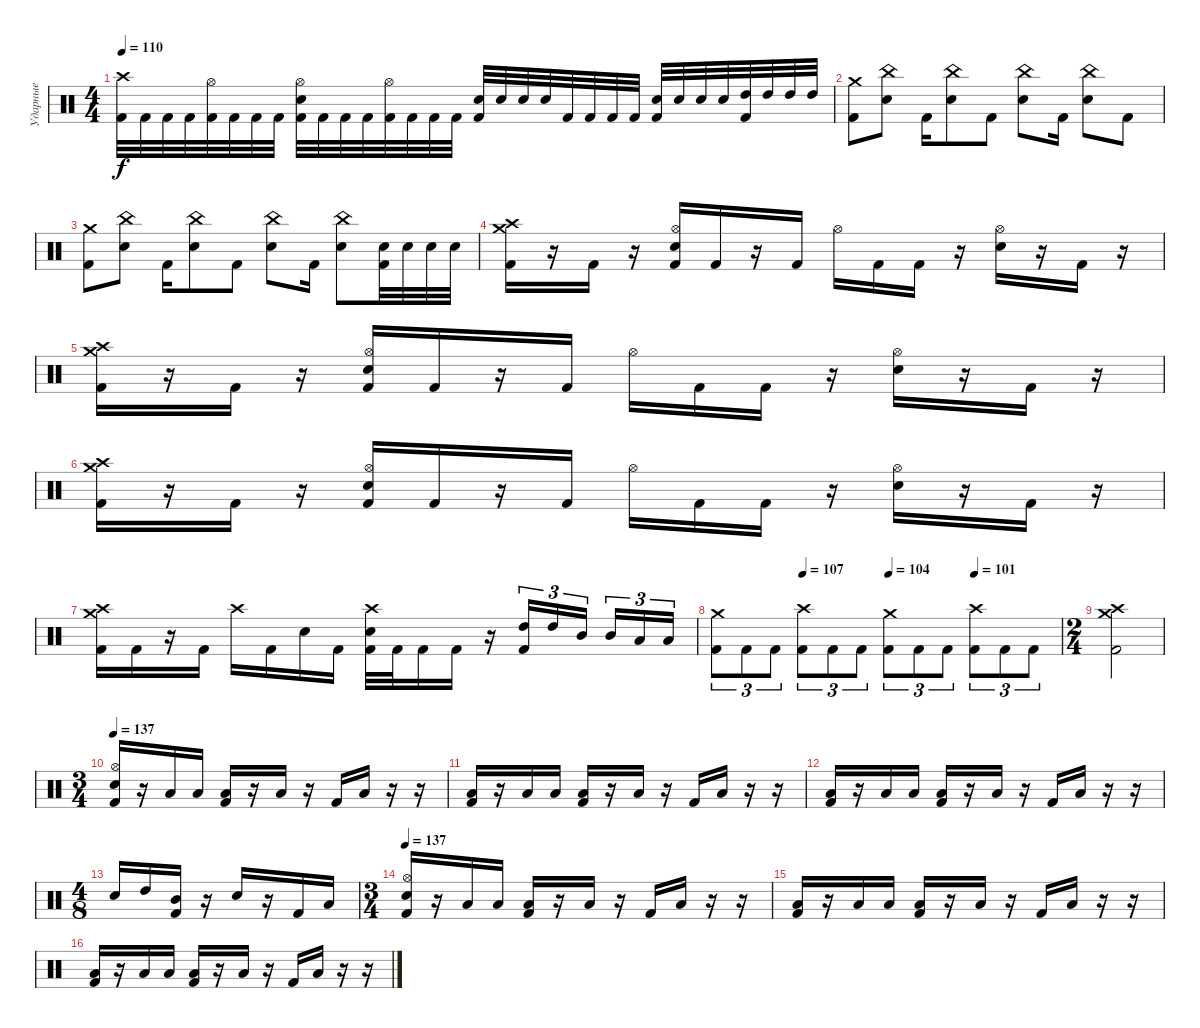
\track ("Ударные" "Ударные") {instrument percussion}
\staff {score}
\articulation defaults
\ts (4 4)
\tempo 110
\clef neutral
\ks c
("Crash high (hit)" "Kick (hit) 2").32{dy f} "Kick (hit) 2".32 "Kick (hit) 2".32 "Kick (hit) 2".32 ("Hi-Hat (open)" "Kick (hit) 2").32 "Kick (hit) 2".32 "Kick (hit) 2".32 "Kick (hit) 2".32 ("Hi-Hat (open)" "Electric Snare (hit)" "Kick (hit) 2").32 "Kick (hit) 2".32 "Kick (hit) 2".32 "Kick (hit) 2".32 ("Hi-Hat (open)" "Kick (hit) 2").32 "Kick (hit) 2".32 "Kick (hit) 2".32 "Kick (hit) 2".32 ("Electric Snare (hit)" "Kick (hit) 2").32 "Electric Snare (hit)".32 "Electric Snare (hit)".32 "Electric Snare (hit)".32 "Kick (hit) 2".32 "Kick (hit) 2".32 "Kick (hit) 2".32 "Kick (hit) 2".32 ("Electric Snare (hit)" "Kick (hit) 2").32 "Electric Snare (hit)".32 "Electric Snare (hit)".32 "Electric Snare (hit)".32 ("High Tom (hit)" "Kick (hit) 2").32 "High Tom (hit)".32 "High Tom (hit)".32 "High Tom (hit)".32 |
("Crash medium (hit)" "Kick (hit) 2").8 ("China (hit)" "Electric Snare (hit)").8 "Kick (hit) 2".16 ("China (hit)" "Electric Snare (hit)").8 "Kick (hit) 2".8 ("China (hit)" "Electric Snare (hit)").8 "Kick (hit) 2".16 ("China (hit)" "Electric Snare (hit)").8 "Kick (hit) 2".8 |
("Crash medium (hit)" "Kick (hit) 2").8 ("China (hit)" "Electric Snare (hit)").8 "Kick (hit) 2".16 ("China (hit)" "Electric Snare (hit)").8 "Kick (hit) 2".8 ("China (hit)" "Electric Snare (hit)").8 "Kick (hit) 2".16 ("China (hit)" "Electric Snare (hit)").8 ("Electric Snare (hit)" "Kick (hit) 2").32 "Electric Snare (hit)".32 "Electric Snare (hit)".32 "Electric Snare (hit)".32 |
("Crash high (hit)" "Crash medium (hit)" "Kick (hit) 2").16 r.16 "Kick (hit) 2".16 r.16 ("Hi-Hat (open)" "Electric Snare (hit)" "Kick (hit) 2").16 "Kick (hit) 2".16 r.16 "Kick (hit) 2".16 "Hi-Hat (open)".16 "Kick (hit) 2".16 "Kick (hit) 2".16 r.16 ("Hi-Hat (open)" "Electric Snare (hit)").16 r.16 "Kick (hit) 2".16 r.16 |
("Crash high (hit)" "Crash medium (hit)" "Kick (hit) 2").16 r.16 "Kick (hit) 2".16 r.16 ("Hi-Hat (open)" "Electric Snare (hit)" "Kick (hit) 2").16 "Kick (hit) 2".16 r.16 "Kick (hit) 2".16 "Hi-Hat (open)".16 "Kick (hit) 2".16 "Kick (hit) 2".16 r.16 ("Hi-Hat (open)" "Electric Snare (hit)").16 r.16 "Kick (hit) 2".16 r.16 |
("Crash high (hit)" "Crash medium (hit)" "Kick (hit) 2").16 r.16 "Kick (hit) 2".16 r.16 ("Hi-Hat (open)" "Electric Snare (hit)" "Kick (hit) 2").16 "Kick (hit) 2".16 r.16 "Kick (hit) 2".16 "Hi-Hat (open)".16 "Kick (hit) 2".16 "Kick (hit) 2".16 r.16 ("Hi-Hat (open)" "Electric Snare (hit)").16 r.16 "Kick (hit) 2".16 r.16 |
("Crash high (hit)" "Crash medium (hit)" "Kick (hit) 2").16 "Kick (hit) 2".16 r.16 "Kick (hit) 2".16 "Crash high (hit)".16 "Kick (hit) 2".16 "Electric Snare (hit)".16 "Kick (hit) 2".16 ("Crash high (hit)" "Electric Snare (hit)" "Kick (hit) 2").32 "Kick (hit) 2".32 "Kick (hit) 2".16 "Kick (hit) 2".16 r.16 ("High Tom (hit)" "Kick (hit) 2").16{tu (3 2)} "High Tom (hit)".16{tu (3 2)} "Mid Tom (hit)".16{tu (3 2) beam splitsecondary} "Mid Tom (hit)".16{tu (3 2)} "Low Tom (hit)".16{tu (3 2)} "Low Tom (hit)".16{tu (3 2)} |
\tempo (107 0.25)
\tempo (104 0.5)
\tempo (101 0.75)
("Crash medium (hit)" "Kick (hit) 2").8{tu (3 2)} "Kick (hit) 2".8{tu (3 2)} "Kick (hit) 2".8{tu (3 2)} ("Crash high (hit)" "Kick (hit) 2").8{tu (3 2)} "Kick (hit) 2".8{tu (3 2)} "Kick (hit) 2".8{tu (3 2)} ("Crash medium (hit)" "Kick (hit) 2").8{tu (3 2)} "Kick (hit) 2".8{tu (3 2)} "Kick (hit) 2".8{tu (3 2)} ("Crash high (hit)" "Kick (hit) 2").8{tu (3 2)} "Kick (hit) 2".8{tu (3 2)} "Kick (hit) 2".8{tu (3 2)} |
\ts (2 4)
("Crash high (hit)" "Crash medium (hit)" "Kick (hit) 2").2 |
\ts (3 4)
\tempo 137
("Hi-Hat (open)" "Electric Snare (hit)" "Kick (hit) 2").16 r.16 "Low Tom (hit)".16 "Low Tom (hit)".16 ("Low Tom (hit)" "Kick (hit) 2").16 r.16 "Low Tom (hit)".16 r.16 "Kick (hit) 2".16 "Low Tom (hit)".16 r.16 r.16 |
("Low Tom (hit)" "Kick (hit) 2").16 r.16 "Low Tom (hit)".16 "Low Tom (hit)".16 ("Low Tom (hit)" "Kick (hit) 2").16 r.16 "Low Tom (hit)".16 r.16 "Kick (hit) 2".16 "Low Tom (hit)".16 r.16 r.16 |
("Low Tom (hit)" "Kick (hit) 2").16 r.16 "Low Tom (hit)".16 "Low Tom (hit)".16 ("Low Tom (hit)" "Kick (hit) 2").16 r.16 "Low Tom (hit)".16 r.16 "Kick (hit) 2".16 "Low Tom (hit)".16 r.16 r.16 |
\ts (4 8)
"Electric Snare (hit)".16 "High Tom (hit)".16 ("Mid Tom (hit)" "Kick (hit) 2").16 r.16 "Electric Snare (hit)".16 r.16 "Kick (hit) 2".16 "Low Tom (hit)".16 |
\ts (3 4)
\tempo 137
("Hi-Hat (open)" "Electric Snare (hit)" "Kick (hit) 2").16 r.16 "Low Tom (hit)".16 "Low Tom (hit)".16 ("Low Tom (hit)" "Kick (hit) 2").16 r.16 "Low Tom (hit)".16 r.16 "Kick (hit) 2".16 "Low Tom (hit)".16 r.16 r.16 |
("Low Tom (hit)" "Kick (hit) 2").16 r.16 "Low Tom (hit)".16 "Low Tom (hit)".16 ("Low Tom (hit)" "Kick (hit) 2").16 r.16 "Low Tom (hit)".16 r.16 "Kick (hit) 2".16 "Low Tom (hit)".16 r.16 r.16 |
("Low Tom (hit)" "Kick (hit) 2").16 r.16 "Low Tom (hit)".16 "Low Tom (hit)".16 ("Low Tom (hit)" "Kick (hit) 2").16 r.16 "Low Tom (hit)".16 r.16 "Kick (hit) 2".16 "Low Tom (hit)".16 r.16 r.16
